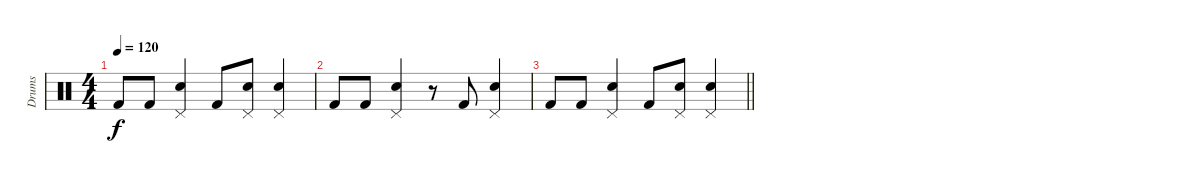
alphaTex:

\track ("Drums" "Drums") {instrument percussion}
\staff {score}
\articulation defaults
\ts (4 4)
\tempo 120
\clef neutral
\ks c "Kick (hit) 2".8{dy f} "Kick (hit) 2".8
("Snare (hit) 2" "Pedal Hi-Hat (hit)").4 "Kick (hit) 2".8 ("Snare (hit) 2" "Pedal Hi-Hat (hit)").8 ("Snare (hit) 2" "Pedal Hi-Hat (hit)").4 |
"Kick (hit) 2".8 "Kick (hit) 2".8 ("Snare (hit) 2" "Pedal Hi-Hat (hit)").4 r.8 "Kick (hit) 2".8 ("Snare (hit) 2" "Pedal Hi-Hat (hit)").4 |
\barLineRight lightlight "Kick (hit) 2".8 "Kick (hit) 2".8
("Snare (hit) 2" "Pedal Hi-Hat (hit)").4 "Kick (hit) 2".8 ("Snare (hit) 2" "Pedal Hi-Hat (hit)").8 ("Snare (hit) 2" "Pedal Hi-Hat (hit)").4
